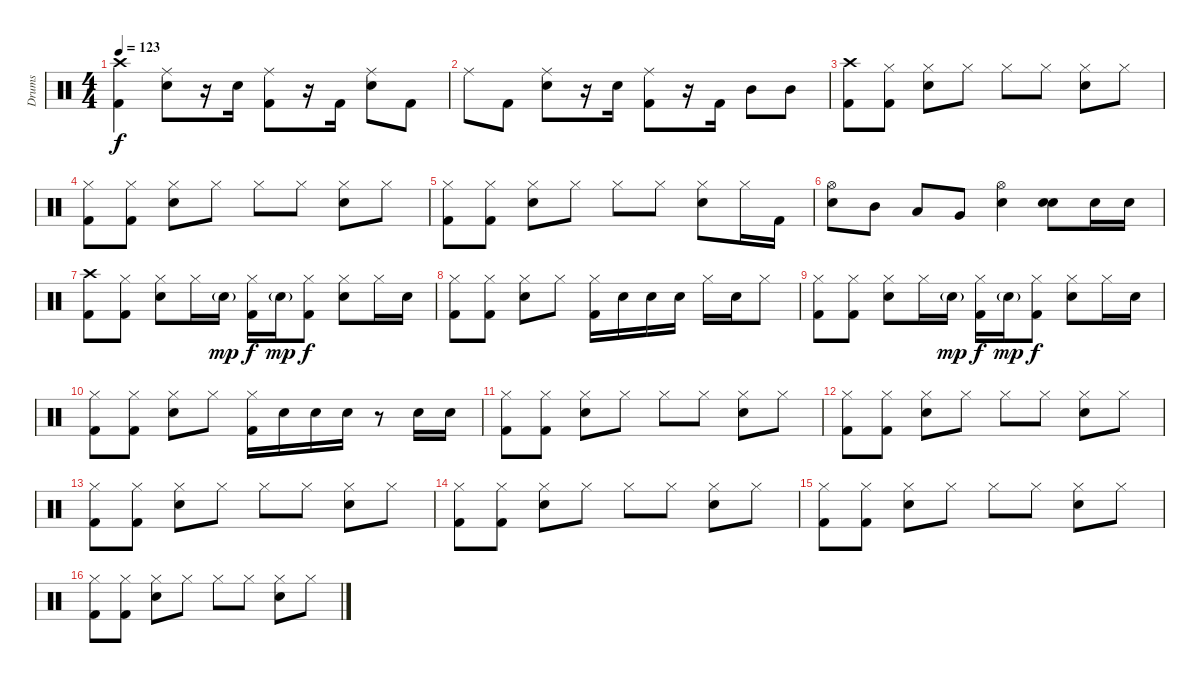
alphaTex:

\track ("Drums" "Drums") {instrument percussion}
\staff {score}
\articulation defaults
\ts (4 4)
\tempo 123
\clef neutral
\ks c
("Crash high (hit)" "Kick (hit) 2").4{dy f} ("Ride (middle)" "Snare (hit) 2").8 r.16 "Snare (hit) 2".16 ("Ride (middle)" "Kick (hit) 2").8 r.16 "Kick (hit) 2".16 ("Ride (middle)" "Snare (hit) 2").8 "Kick (hit) 2".8 |
"Ride (middle)".8 "Kick (hit) 2".8 ("Ride (middle)" "Snare (hit) 2").8 r.16 "Snare (hit) 2".16 ("Ride (middle)" "Kick (hit) 2").8 r.16 "Kick (hit) 2".16 "Mid Tom (hit)".8 "Mid Tom (hit)".8 |
("Crash high (hit)" "Kick (hit) 2").8 ("Hi-Hat (closed)" "Kick (hit) 2").8 ("Hi-Hat (closed)" "Snare (hit) 2").8 "Hi-Hat (closed)".8 "Hi-Hat (closed)".8 "Hi-Hat (closed)".8 ("Hi-Hat (closed)" "Snare (hit) 2").8 "Hi-Hat (closed)".8 |
("Hi-Hat (closed)" "Kick (hit) 2").8 ("Hi-Hat (closed)" "Kick (hit) 2").8 ("Hi-Hat (closed)" "Snare (hit) 2").8 "Hi-Hat (closed)".8 "Hi-Hat (closed)".8 "Hi-Hat (closed)".8 ("Hi-Hat (closed)" "Snare (hit) 2").8 "Hi-Hat (closed)".8 |
("Hi-Hat (closed)" "Kick (hit) 2").8 ("Hi-Hat (closed)" "Kick (hit) 2").8 ("Hi-Hat (closed)" "Snare (hit) 2").8 "Hi-Hat (closed)".8 "Hi-Hat (closed)".8 "Hi-Hat (closed)".8 ("Hi-Hat (closed)" "Snare (hit) 2").8 "Hi-Hat (closed)".16 "Kick (hit) 2".16 |
("Hi-Hat (open)" "Snare (hit) 2").8 "Mid Tom (hit)".8 "Low Tom (hit)".8 "Very Low Tom (hit)".8 ("Hi-Hat (open)" "Snare (hit) 2").4 ("Snare (hit) 2" "Snare (hit) 2").8 "Snare (hit) 2".16 "Snare (hit) 2".16 |
("Crash high (hit)" "Kick (hit) 2").8 ("Hi-Hat (closed)" "Kick (hit) 2").8 ("Hi-Hat (closed)" "Snare (hit) 2").8 "Hi-Hat (closed)".16 "Snare (hit) 2"{g}.16{dy mp} ("Hi-Hat (closed)" "Kick (hit) 2").16{dy f} "Snare (hit) 2"{g}.16{dy mp} ("Hi-Hat (closed)" "Kick (hit) 2").8{dy f} ("Hi-Hat (closed)" "Snare (hit) 2").8 "Hi-Hat (closed)".16 "Snare (hit) 2".16 |
("Hi-Hat (closed)" "Kick (hit) 2").8 ("Hi-Hat (closed)" "Kick (hit) 2").8 ("Hi-Hat (closed)" "Snare (hit) 2").8 "Hi-Hat (closed)".8 ("Hi-Hat (closed)" "Kick (hit) 2").16 "Snare (hit) 2".16 "Snare (hit) 2".16 "Snare (hit) 2".16 "Hi-Hat (closed)".16 "Snare (hit) 2".16 "Hi-Hat (closed)".8 |
("Hi-Hat (closed)" "Kick (hit) 2").8 ("Hi-Hat (closed)" "Kick (hit) 2").8 ("Hi-Hat (closed)" "Snare (hit) 2").8 "Hi-Hat (closed)".16 "Snare (hit) 2"{g}.16{dy mp} ("Hi-Hat (closed)" "Kick (hit) 2").16{dy f} "Snare (hit) 2"{g}.16{dy mp} ("Hi-Hat (closed)" "Kick (hit) 2").8{dy f} ("Hi-Hat (closed)" "Snare (hit) 2").8 "Hi-Hat (closed)".16 "Snare (hit) 2".16 |
("Hi-Hat (closed)" "Kick (hit) 2").8 ("Hi-Hat (closed)" "Kick (hit) 2").8 ("Hi-Hat (closed)" "Snare (hit) 2").8 "Hi-Hat (closed)".8 ("Hi-Hat (closed)" "Kick (hit) 2").16 "Snare (hit) 2".16 "Snare (hit) 2".16 "Snare (hit) 2".16 r.8 "Snare (hit) 2".16 "Snare (hit) 2".16 |
("Hi-Hat (closed)" "Kick (hit) 2").8 ("Hi-Hat (closed)" "Kick (hit) 2").8 ("Hi-Hat (closed)" "Snare (hit) 2").8 "Hi-Hat (closed)".8 "Hi-Hat (closed)".8 "Hi-Hat (closed)".8 ("Hi-Hat (closed)" "Snare (hit) 2").8 "Hi-Hat (closed)".8 |
("Hi-Hat (closed)" "Kick (hit) 2").8 ("Hi-Hat (closed)" "Kick (hit) 2").8 ("Hi-Hat (closed)" "Snare (hit) 2").8 "Hi-Hat (closed)".8 "Hi-Hat (closed)".8 "Hi-Hat (closed)".8 ("Hi-Hat (closed)" "Snare (hit) 2").8 "Hi-Hat (closed)".8 |
("Hi-Hat (closed)" "Kick (hit) 2").8 ("Hi-Hat (closed)" "Kick (hit) 2").8 ("Hi-Hat (closed)" "Snare (hit) 2").8 "Hi-Hat (closed)".8 "Hi-Hat (closed)".8 "Hi-Hat (closed)".8 ("Hi-Hat (closed)" "Snare (hit) 2").8 "Hi-Hat (closed)".8 |
("Hi-Hat (closed)" "Kick (hit) 2").8 ("Hi-Hat (closed)" "Kick (hit) 2").8 ("Hi-Hat (closed)" "Snare (hit) 2").8 "Hi-Hat (closed)".8 "Hi-Hat (closed)".8 "Hi-Hat (closed)".8 ("Hi-Hat (closed)" "Snare (hit) 2").8 "Hi-Hat (closed)".8 |
("Hi-Hat (closed)" "Kick (hit) 2").8 ("Hi-Hat (closed)" "Kick (hit) 2").8 ("Hi-Hat (closed)" "Snare (hit) 2").8 "Hi-Hat (closed)".8 "Hi-Hat (closed)".8 "Hi-Hat (closed)".8 ("Hi-Hat (closed)" "Snare (hit) 2").8 "Hi-Hat (closed)".8 |
("Hi-Hat (closed)" "Kick (hit) 2").8 ("Hi-Hat (closed)" "Kick (hit) 2").8 ("Hi-Hat (closed)" "Snare (hit) 2").8 "Hi-Hat (closed)".8 "Hi-Hat (closed)".8 "Hi-Hat (closed)".8 ("Hi-Hat (closed)" "Snare (hit) 2").8 "Hi-Hat (closed)".8
